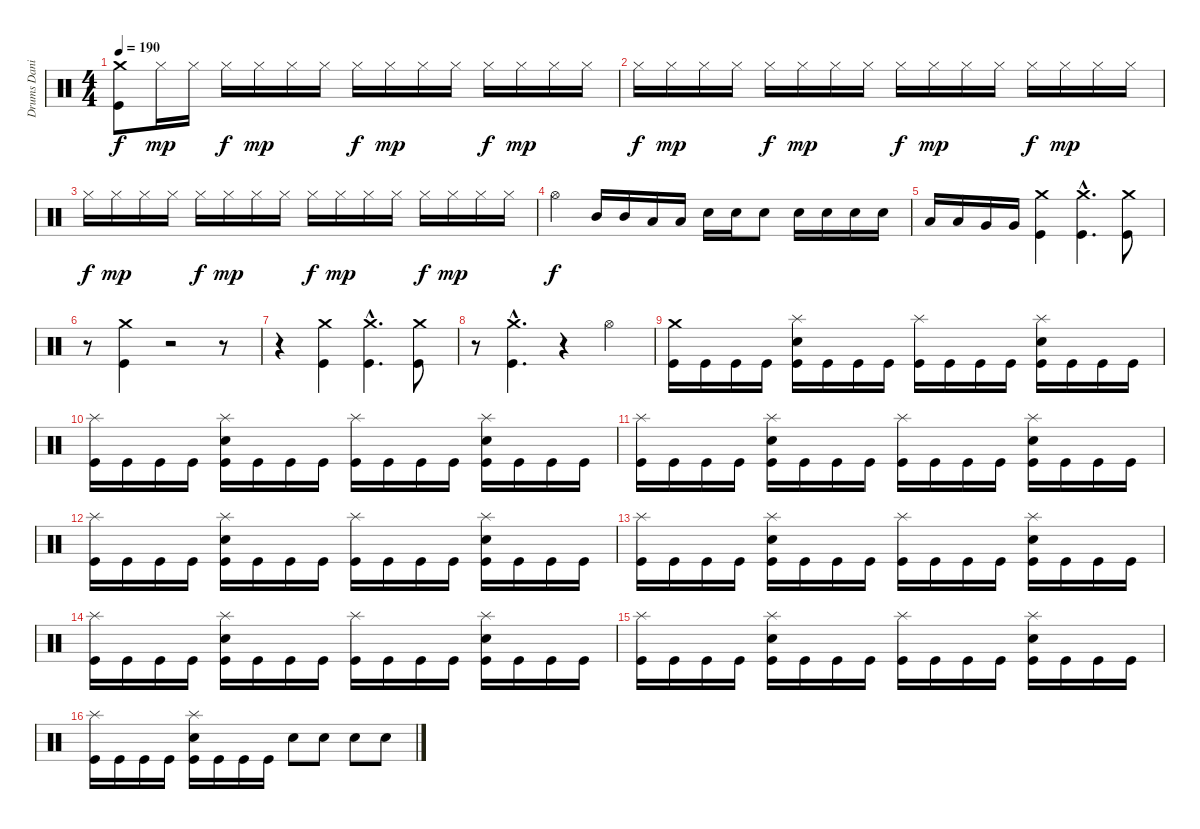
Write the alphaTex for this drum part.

\track ("Drums Daniel" "Drums Dani") {instrument percussion}
\staff {score}
\articulation defaults
\ts (4 4)
\tempo 190
\clef neutral
\ks c
("Kick (hit)" "Crash medium (hit)").8{dy f} "Hi-Hat (closed)".16{dy mp} "Hi-Hat (closed)".16 "Hi-Hat (closed)".16{dy f} "Hi-Hat (closed)".16{dy mp} "Hi-Hat (closed)".16 "Hi-Hat (closed)".16 "Hi-Hat (closed)".16{dy f} "Hi-Hat (closed)".16{dy mp} "Hi-Hat (closed)".16 "Hi-Hat (closed)".16 "Hi-Hat (closed)".16{dy f} "Hi-Hat (closed)".16{dy mp} "Hi-Hat (closed)".16 "Hi-Hat (closed)".16 |
"Hi-Hat (closed)".16{dy f} "Hi-Hat (closed)".16{dy mp} "Hi-Hat (closed)".16 "Hi-Hat (closed)".16 "Hi-Hat (closed)".16{dy f} "Hi-Hat (closed)".16{dy mp} "Hi-Hat (closed)".16 "Hi-Hat (closed)".16 "Hi-Hat (closed)".16{dy f} "Hi-Hat (closed)".16{dy mp} "Hi-Hat (closed)".16 "Hi-Hat (closed)".16 "Hi-Hat (closed)".16{dy f} "Hi-Hat (closed)".16{dy mp} "Hi-Hat (closed)".16 "Hi-Hat (closed)".16 |
"Hi-Hat (closed)".16{dy f} "Hi-Hat (closed)".16{dy mp} "Hi-Hat (closed)".16 "Hi-Hat (closed)".16 "Hi-Hat (closed)".16{dy f} "Hi-Hat (closed)".16{dy mp} "Hi-Hat (closed)".16 "Hi-Hat (closed)".16 "Hi-Hat (closed)".16{dy f} "Hi-Hat (closed)".16{dy mp} "Hi-Hat (closed)".16 "Hi-Hat (closed)".16 "Hi-Hat (closed)".16{dy f} "Hi-Hat (closed)".16{dy mp} "Hi-Hat (closed)".16 "Hi-Hat (closed)".16 |
"Hi-Hat (open)".4{dy f} "Mid Tom (hit)".16 "Mid Tom (hit)".16 "Low Tom (hit)".16 "Low Tom (hit)".16 "Electric Snare (hit)".16 "Electric Snare (hit)".16 "Electric Snare (hit)".8 "Electric Snare (hit)".16 "Electric Snare (hit)".16 "Electric Snare (hit)".16 "Electric Snare (hit)".16 |
"Low Tom (hit)".16 "Low Tom (hit)".16 "Very Low Tom (hit)".16 "Very Low Tom (hit)".16 ("Kick (hit)" "Crash medium (hit)").4 ("Kick (hit)"{hac} "Crash medium (hit)"{hac}).4{d} ("Kick (hit)" "Crash medium (hit)").8 |
r.8 ("Kick (hit)" "Crash medium (hit)").4 r.2 r.8 |
r.4 ("Kick (hit)" "Crash medium (hit)").4 ("Kick (hit)"{hac} "Crash medium (hit)"{hac}).4{d} ("Kick (hit)" "Crash medium (hit)").8 |
r.8 ("Kick (hit)"{hac} "Crash medium (hit)"{hac}).4{d} r.4 "Hi-Hat (open)".4 |
("Kick (hit)" "Crash medium (hit)").16 "Kick (hit)".16 "Kick (hit)".16 "Kick (hit)".16 ("Kick (hit)" "Electric Snare (hit)" "Splash (hit)").16 "Kick (hit)".16 "Kick (hit)".16 "Kick (hit)".16 ("Kick (hit)" "Splash (hit)").16 "Kick (hit)".16 "Kick (hit)".16 "Kick (hit)".16 ("Kick (hit)" "Electric Snare (hit)" "Splash (hit)").16 "Kick (hit)".16 "Kick (hit)".16 "Kick (hit)".16 |
("Kick (hit)" "Splash (hit)").16 "Kick (hit)".16 "Kick (hit)".16 "Kick (hit)".16 ("Kick (hit)" "Electric Snare (hit)" "Splash (hit)").16 "Kick (hit)".16 "Kick (hit)".16 "Kick (hit)".16 ("Kick (hit)" "Splash (hit)").16 "Kick (hit)".16 "Kick (hit)".16 "Kick (hit)".16 ("Kick (hit)" "Electric Snare (hit)" "Splash (hit)").16 "Kick (hit)".16 "Kick (hit)".16 "Kick (hit)".16 |
("Kick (hit)" "Splash (hit)").16 "Kick (hit)".16 "Kick (hit)".16 "Kick (hit)".16 ("Kick (hit)" "Electric Snare (hit)" "Splash (hit)").16 "Kick (hit)".16 "Kick (hit)".16 "Kick (hit)".16 ("Kick (hit)" "Splash (hit)").16 "Kick (hit)".16 "Kick (hit)".16 "Kick (hit)".16 ("Kick (hit)" "Electric Snare (hit)" "Splash (hit)").16 "Kick (hit)".16 "Kick (hit)".16 "Kick (hit)".16 |
("Kick (hit)" "Splash (hit)").16 "Kick (hit)".16 "Kick (hit)".16 "Kick (hit)".16 ("Kick (hit)" "Electric Snare (hit)" "Splash (hit)").16 "Kick (hit)".16 "Kick (hit)".16 "Kick (hit)".16 ("Kick (hit)" "Splash (hit)").16 "Kick (hit)".16 "Kick (hit)".16 "Kick (hit)".16 ("Kick (hit)" "Electric Snare (hit)" "Splash (hit)").16 "Kick (hit)".16 "Kick (hit)".16 "Kick (hit)".16 |
("Kick (hit)" "Splash (hit)").16 "Kick (hit)".16 "Kick (hit)".16 "Kick (hit)".16 ("Kick (hit)" "Electric Snare (hit)" "Splash (hit)").16 "Kick (hit)".16 "Kick (hit)".16 "Kick (hit)".16 ("Kick (hit)" "Splash (hit)").16 "Kick (hit)".16 "Kick (hit)".16 "Kick (hit)".16 ("Kick (hit)" "Electric Snare (hit)" "Splash (hit)").16 "Kick (hit)".16 "Kick (hit)".16 "Kick (hit)".16 |
("Kick (hit)" "Splash (hit)").16 "Kick (hit)".16 "Kick (hit)".16 "Kick (hit)".16 ("Kick (hit)" "Electric Snare (hit)" "Splash (hit)").16 "Kick (hit)".16 "Kick (hit)".16 "Kick (hit)".16 ("Kick (hit)" "Splash (hit)").16 "Kick (hit)".16 "Kick (hit)".16 "Kick (hit)".16 ("Kick (hit)" "Electric Snare (hit)" "Splash (hit)").16 "Kick (hit)".16 "Kick (hit)".16 "Kick (hit)".16 |
("Kick (hit)" "Splash (hit)").16 "Kick (hit)".16 "Kick (hit)".16 "Kick (hit)".16 ("Kick (hit)" "Electric Snare (hit)" "Splash (hit)").16 "Kick (hit)".16 "Kick (hit)".16 "Kick (hit)".16 ("Kick (hit)" "Splash (hit)").16 "Kick (hit)".16 "Kick (hit)".16 "Kick (hit)".16 ("Kick (hit)" "Electric Snare (hit)" "Splash (hit)").16 "Kick (hit)".16 "Kick (hit)".16 "Kick (hit)".16 |
("Kick (hit)" "Splash (hit)").16 "Kick (hit)".16 "Kick (hit)".16 "Kick (hit)".16 ("Kick (hit)" "Electric Snare (hit)" "Splash (hit)").16 "Kick (hit)".16 "Kick (hit)".16 "Kick (hit)".16 "Electric Snare (hit)".8 "Electric Snare (hit)".8 "Electric Snare (hit)".8 "Electric Snare (hit)".8
